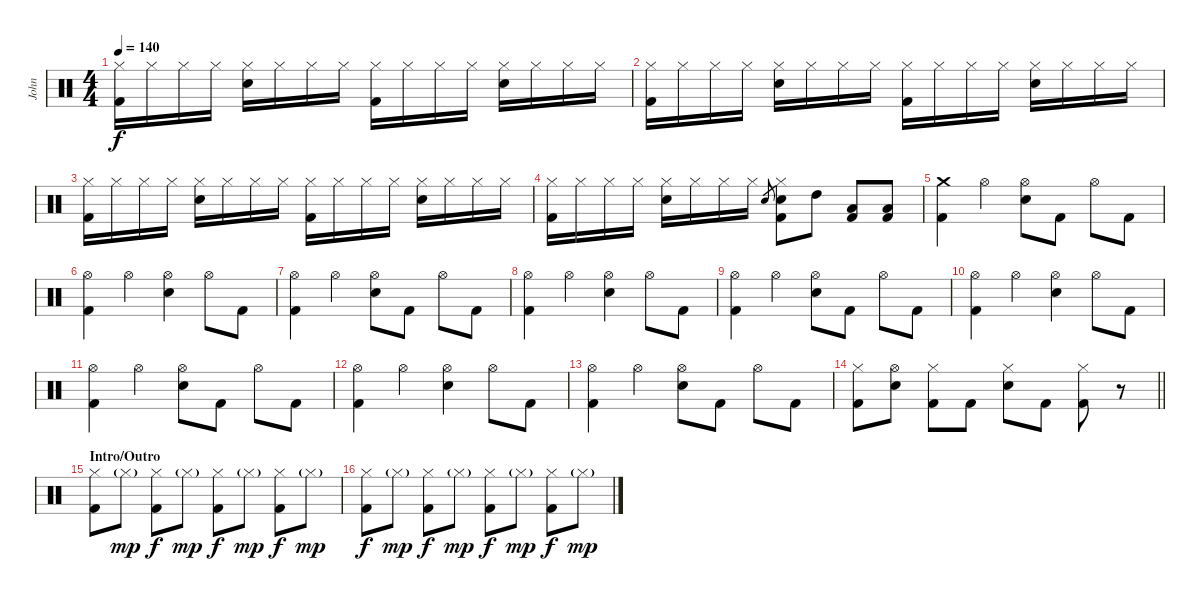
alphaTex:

\track ("John" "John") {instrument percussion}
\staff {score}
\articulation defaults
\ts (4 4)
\tempo 140
\clef neutral
\ks c
("Hi-Hat (closed)" "Kick (hit) 2").16{dy f} "Hi-Hat (closed)".16 "Hi-Hat (closed)".16 "Hi-Hat (closed)".16 ("Hi-Hat (closed)" "Electric Snare (hit)").16 "Hi-Hat (closed)".16 "Hi-Hat (closed)".16 "Hi-Hat (closed)".16 ("Hi-Hat (closed)" "Kick (hit) 2").16 "Hi-Hat (closed)".16 "Hi-Hat (closed)".16 "Hi-Hat (closed)".16 ("Hi-Hat (closed)" "Electric Snare (hit)").16 "Hi-Hat (closed)".16 "Hi-Hat (closed)".16 "Hi-Hat (closed)".16 |
("Hi-Hat (closed)" "Kick (hit) 2").16 "Hi-Hat (closed)".16 "Hi-Hat (closed)".16 "Hi-Hat (closed)".16 ("Hi-Hat (closed)" "Electric Snare (hit)").16 "Hi-Hat (closed)".16 "Hi-Hat (closed)".16 "Hi-Hat (closed)".16 ("Hi-Hat (closed)" "Kick (hit) 2").16 "Hi-Hat (closed)".16 "Hi-Hat (closed)".16 "Hi-Hat (closed)".16 ("Hi-Hat (closed)" "Electric Snare (hit)").16 "Hi-Hat (closed)".16 "Hi-Hat (closed)".16 "Hi-Hat (closed)".16 |
("Hi-Hat (closed)" "Kick (hit) 2").16 "Hi-Hat (closed)".16 "Hi-Hat (closed)".16 "Hi-Hat (closed)".16 ("Hi-Hat (closed)" "Electric Snare (hit)").16 "Hi-Hat (closed)".16 "Hi-Hat (closed)".16 "Hi-Hat (closed)".16 ("Hi-Hat (closed)" "Kick (hit) 2").16 "Hi-Hat (closed)".16 "Hi-Hat (closed)".16 "Hi-Hat (closed)".16 ("Hi-Hat (closed)" "Electric Snare (hit)").16 "Hi-Hat (closed)".16 "Hi-Hat (closed)".16 "Hi-Hat (closed)".16 |
("Hi-Hat (closed)" "Kick (hit) 2").16 "Hi-Hat (closed)".16 "Hi-Hat (closed)".16 "Hi-Hat (closed)".16 ("Hi-Hat (closed)" "Electric Snare (hit)").16 "Hi-Hat (closed)".16 "Hi-Hat (closed)".16 "Hi-Hat (closed)".16 "Electric Snare (hit)".8{gr} ("Hi-Hat (closed)" "Electric Snare (hit)" "Kick (hit) 2").8 "High Tom (hit)".8 ("Low Floor Tom (hit)" "Kick (hit) 2").8 ("Low Floor Tom (hit)" "Kick (hit) 2").8 |
("Crash medium (hit)" "Kick (hit) 2").4 "Hi-Hat (open)".4 ("Hi-Hat (open)" "Electric Snare (hit)").8 "Kick (hit) 2".8 "Hi-Hat (open)".8 "Kick (hit) 2".8 |
("Hi-Hat (open)" "Kick (hit) 2").4 "Hi-Hat (open)".4 ("Hi-Hat (open)" "Electric Snare (hit)").4 "Hi-Hat (open)".8 "Kick (hit) 2".8 |
("Hi-Hat (open)" "Kick (hit) 2").4 "Hi-Hat (open)".4 ("Hi-Hat (open)" "Electric Snare (hit)").8 "Kick (hit) 2".8 "Hi-Hat (open)".8 "Kick (hit) 2".8 |
("Hi-Hat (open)" "Kick (hit) 2").4 "Hi-Hat (open)".4 ("Hi-Hat (open)" "Electric Snare (hit)").4 "Hi-Hat (open)".8 "Kick (hit) 2".8 |
("Hi-Hat (open)" "Kick (hit) 2").4 "Hi-Hat (open)".4 ("Hi-Hat (open)" "Electric Snare (hit)").8 "Kick (hit) 2".8 "Hi-Hat (open)".8 "Kick (hit) 2".8 |
("Hi-Hat (open)" "Kick (hit) 2").4 "Hi-Hat (open)".4 ("Hi-Hat (open)" "Electric Snare (hit)").4 "Hi-Hat (open)".8 "Kick (hit) 2".8 |
("Hi-Hat (open)" "Kick (hit) 2").4 "Hi-Hat (open)".4 ("Hi-Hat (open)" "Electric Snare (hit)").8 "Kick (hit) 2".8 "Hi-Hat (open)".8 "Kick (hit) 2".8 |
("Hi-Hat (open)" "Kick (hit) 2").4 "Hi-Hat (open)".4 ("Hi-Hat (open)" "Electric Snare (hit)").4 "Hi-Hat (open)".8 "Kick (hit) 2".8 |
("Hi-Hat (open)" "Kick (hit) 2").4 "Hi-Hat (open)".4 ("Hi-Hat (open)" "Electric Snare (hit)").8 "Kick (hit) 2".8 "Hi-Hat (open)".8 "Kick (hit) 2".8 |
\barLineRight lightlight
("Hi-Hat (closed)" "Kick (hit) 2").8 ("Hi-Hat (open)" "Electric Snare (hit)").8 ("Hi-Hat (closed)" "Kick (hit) 2").8 "Kick (hit) 2".8 ("Hi-Hat (closed)" "Electric Snare (hit)").8 "Kick (hit) 2".8 ("Hi-Hat (closed)" "Kick (hit) 2").8 r.8 |
\section ("" "Intro/Outro")
("Hi-Hat (closed)" "Kick (hit) 2").8 "Hi-Hat (closed)"{g}.8{dy mp} ("Hi-Hat (closed)" "Kick (hit) 2").8{dy f} "Hi-Hat (closed)"{g}.8{dy mp} ("Hi-Hat (closed)" "Kick (hit) 2").8{dy f} "Hi-Hat (closed)"{g}.8{dy mp} ("Hi-Hat (closed)" "Kick (hit) 2").8{dy f} "Hi-Hat (closed)"{g}.8{dy mp} |
("Hi-Hat (closed)" "Kick (hit) 2").8{dy f} "Hi-Hat (closed)"{g}.8{dy mp} ("Hi-Hat (closed)" "Kick (hit) 2").8{dy f} "Hi-Hat (closed)"{g}.8{dy mp} ("Hi-Hat (closed)" "Kick (hit) 2").8{dy f} "Hi-Hat (closed)"{g}.8{dy mp} ("Hi-Hat (closed)" "Kick (hit) 2").8{dy f} "Hi-Hat (closed)"{g}.8{dy mp}
